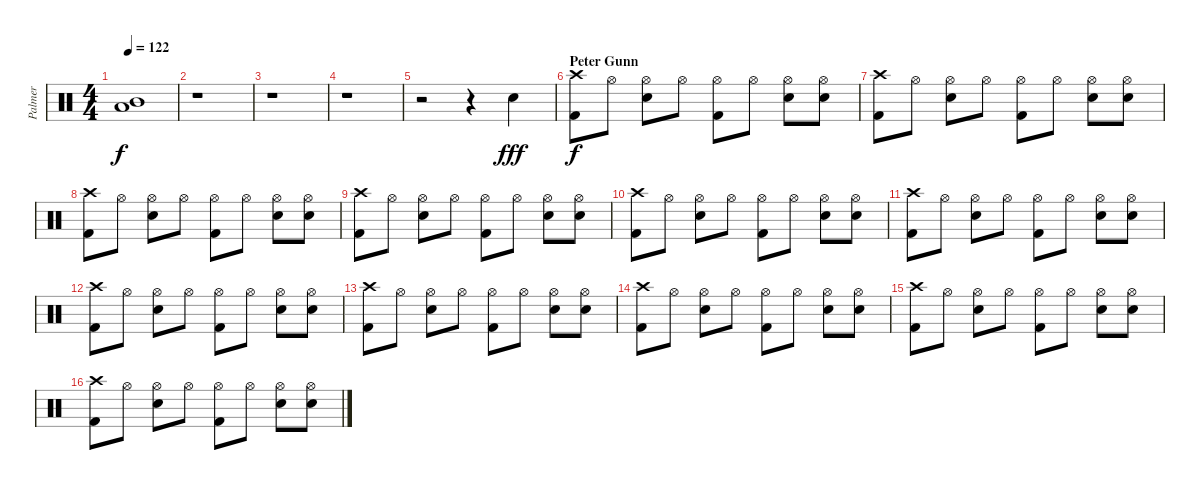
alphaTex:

\track ("Palmer" "Palmer") {instrument percussion}
\staff {score}
\articulation defaults
\ts (4 4)
\tempo 122
\clef neutral
\ks c
("Mid Tom (hit)" "Low Floor Tom (hit)").1{dy f} |
r.1 |
r.1 |
r.1 |
r.2 r.4 "Electric Snare (hit)".4{dy fff} |
\section ("" "Peter Gunn")
("Crash high (hit)" "Kick (hit) 2").8{dy f} "Hi-Hat (open)".8 ("Hi-Hat (open)" "Electric Snare (hit)").8 "Hi-Hat (open)".8 ("Hi-Hat (open)" "Kick (hit) 2").8 "Hi-Hat (open)".8 ("Hi-Hat (open)" "Electric Snare (hit)").8 ("Hi-Hat (open)" "Electric Snare (hit)").8 |
("Crash high (hit)" "Kick (hit) 2").8 "Hi-Hat (open)".8 ("Hi-Hat (open)" "Electric Snare (hit)").8 "Hi-Hat (open)".8 ("Hi-Hat (open)" "Kick (hit) 2").8 "Hi-Hat (open)".8 ("Hi-Hat (open)" "Electric Snare (hit)").8 ("Hi-Hat (open)" "Electric Snare (hit)").8 |
("Crash high (hit)" "Kick (hit) 2").8 "Hi-Hat (open)".8 ("Hi-Hat (open)" "Electric Snare (hit)").8 "Hi-Hat (open)".8 ("Hi-Hat (open)" "Kick (hit) 2").8 "Hi-Hat (open)".8 ("Hi-Hat (open)" "Electric Snare (hit)").8 ("Hi-Hat (open)" "Electric Snare (hit)").8 |
("Crash high (hit)" "Kick (hit) 2").8 "Hi-Hat (open)".8 ("Hi-Hat (open)" "Electric Snare (hit)").8 "Hi-Hat (open)".8 ("Hi-Hat (open)" "Kick (hit) 2").8 "Hi-Hat (open)".8 ("Hi-Hat (open)" "Electric Snare (hit)").8 ("Hi-Hat (open)" "Electric Snare (hit)").8 |
("Crash high (hit)" "Kick (hit) 2").8 "Hi-Hat (open)".8 ("Hi-Hat (open)" "Electric Snare (hit)").8 "Hi-Hat (open)".8 ("Hi-Hat (open)" "Kick (hit) 2").8 "Hi-Hat (open)".8 ("Hi-Hat (open)" "Electric Snare (hit)").8 ("Hi-Hat (open)" "Electric Snare (hit)").8 |
("Crash high (hit)" "Kick (hit) 2").8 "Hi-Hat (open)".8 ("Hi-Hat (open)" "Electric Snare (hit)").8 "Hi-Hat (open)".8 ("Hi-Hat (open)" "Kick (hit) 2").8 "Hi-Hat (open)".8 ("Hi-Hat (open)" "Electric Snare (hit)").8 ("Hi-Hat (open)" "Electric Snare (hit)").8 |
("Crash high (hit)" "Kick (hit) 2").8 "Hi-Hat (open)".8 ("Hi-Hat (open)" "Electric Snare (hit)").8 "Hi-Hat (open)".8 ("Hi-Hat (open)" "Kick (hit) 2").8 "Hi-Hat (open)".8 ("Hi-Hat (open)" "Electric Snare (hit)").8 ("Hi-Hat (open)" "Electric Snare (hit)").8 |
("Crash high (hit)" "Kick (hit) 2").8 "Hi-Hat (open)".8 ("Hi-Hat (open)" "Electric Snare (hit)").8 "Hi-Hat (open)".8 ("Hi-Hat (open)" "Kick (hit) 2").8 "Hi-Hat (open)".8 ("Hi-Hat (open)" "Electric Snare (hit)").8 ("Hi-Hat (open)" "Electric Snare (hit)").8 |
("Crash high (hit)" "Kick (hit) 2").8 "Hi-Hat (open)".8 ("Hi-Hat (open)" "Electric Snare (hit)").8 "Hi-Hat (open)".8 ("Hi-Hat (open)" "Kick (hit) 2").8 "Hi-Hat (open)".8 ("Hi-Hat (open)" "Electric Snare (hit)").8 ("Hi-Hat (open)" "Electric Snare (hit)").8 |
("Crash high (hit)" "Kick (hit) 2").8 "Hi-Hat (open)".8 ("Hi-Hat (open)" "Electric Snare (hit)").8 "Hi-Hat (open)".8 ("Hi-Hat (open)" "Kick (hit) 2").8 "Hi-Hat (open)".8 ("Hi-Hat (open)" "Electric Snare (hit)").8 ("Hi-Hat (open)" "Electric Snare (hit)").8 |
("Crash high (hit)" "Kick (hit) 2").8 "Hi-Hat (open)".8 ("Hi-Hat (open)" "Electric Snare (hit)").8 "Hi-Hat (open)".8 ("Hi-Hat (open)" "Kick (hit) 2").8 "Hi-Hat (open)".8 ("Hi-Hat (open)" "Electric Snare (hit)").8 ("Hi-Hat (open)" "Electric Snare (hit)").8
